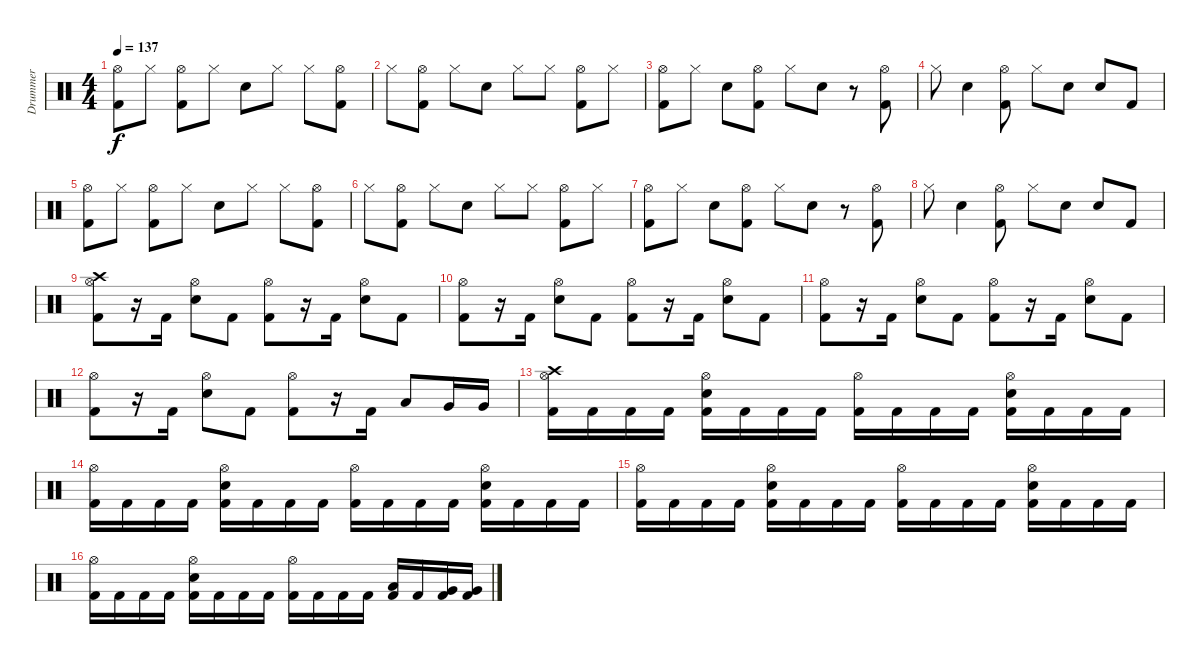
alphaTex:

\track ("Drummer" "Drummer") {instrument percussion}
\staff {score}
\articulation defaults
\ts (4 4)
\tempo 137
\clef neutral
\ks c
("Hi-Hat (open)" "Kick (hit) 2").8{dy f} "Hi-Hat (closed)".8 ("Hi-Hat (open)" "Kick (hit) 2").8 "Hi-Hat (closed)".8 "Electric Snare (hit)".8 "Hi-Hat (closed)".8 "Hi-Hat (closed)".8 ("Hi-Hat (open)" "Kick (hit) 2").8 |
"Hi-Hat (closed)".8 ("Hi-Hat (open)" "Kick (hit) 2").8 "Hi-Hat (closed)".8 "Electric Snare (hit)".8 "Hi-Hat (closed)".8 "Hi-Hat (closed)".8 ("Hi-Hat (open)" "Kick (hit) 2").8 "Hi-Hat (closed)".8 |
("Hi-Hat (open)" "Kick (hit) 2").8 "Hi-Hat (closed)".8 "Electric Snare (hit)".8 ("Hi-Hat (open)" "Kick (hit) 2").8 "Hi-Hat (closed)".8 "Electric Snare (hit)".8 r.8 ("Hi-Hat (open)" "Kick (hit) 2").8 |
"Hi-Hat (closed)".8 "Electric Snare (hit)".4 ("Hi-Hat (open)" "Kick (hit) 2").8 "Hi-Hat (closed)".8 "Electric Snare (hit)".8 "Electric Snare (hit)".8 "Kick (hit) 2".8 |
("Hi-Hat (open)" "Kick (hit) 2").8 "Hi-Hat (closed)".8 ("Hi-Hat (open)" "Kick (hit) 2").8 "Hi-Hat (closed)".8 "Electric Snare (hit)".8 "Hi-Hat (closed)".8 "Hi-Hat (closed)".8 ("Hi-Hat (open)" "Kick (hit) 2").8 |
"Hi-Hat (closed)".8 ("Hi-Hat (open)" "Kick (hit) 2").8 "Hi-Hat (closed)".8 "Electric Snare (hit)".8 "Hi-Hat (closed)".8 "Hi-Hat (closed)".8 ("Hi-Hat (open)" "Kick (hit) 2").8 "Hi-Hat (closed)".8 |
("Hi-Hat (open)" "Kick (hit) 2").8 "Hi-Hat (closed)".8 "Electric Snare (hit)".8 ("Hi-Hat (open)" "Kick (hit) 2").8 "Hi-Hat (closed)".8 "Electric Snare (hit)".8 r.8 ("Hi-Hat (open)" "Kick (hit) 2").8 |
"Hi-Hat (closed)".8 "Electric Snare (hit)".4 ("Hi-Hat (open)" "Kick (hit) 2").8 "Hi-Hat (closed)".8 "Electric Snare (hit)".8 "Electric Snare (hit)".8 "Kick (hit) 2".8 |
("Hi-Hat (open)" "Kick (hit) 2" "Crash high (hit)").8 r.16 "Kick (hit) 2".16 ("Hi-Hat (open)" "Electric Snare (hit)").8 "Kick (hit) 2".8 ("Hi-Hat (open)" "Kick (hit) 2").8 r.16 "Kick (hit) 2".16 ("Hi-Hat (open)" "Electric Snare (hit)").8 "Kick (hit) 2".8 |
("Hi-Hat (open)" "Kick (hit) 2").8 r.16 "Kick (hit) 2".16 ("Hi-Hat (open)" "Electric Snare (hit)").8 "Kick (hit) 2".8 ("Hi-Hat (open)" "Kick (hit) 2").8 r.16 "Kick (hit) 2".16 ("Hi-Hat (open)" "Electric Snare (hit)").8 "Kick (hit) 2".8 |
("Hi-Hat (open)" "Kick (hit) 2").8 r.16 "Kick (hit) 2".16 ("Hi-Hat (open)" "Electric Snare (hit)").8 "Kick (hit) 2".8 ("Hi-Hat (open)" "Kick (hit) 2").8 r.16 "Kick (hit) 2".16 ("Hi-Hat (open)" "Electric Snare (hit)").8 "Kick (hit) 2".8 |
("Hi-Hat (open)" "Kick (hit) 2").8 r.16 "Kick (hit) 2".16 ("Hi-Hat (open)" "Electric Snare (hit)").8 "Kick (hit) 2".8 ("Hi-Hat (open)" "Kick (hit) 2").8 r.16 "Kick (hit) 2".16 "Low Tom (hit)".8 "Very Low Tom (hit)".16 "Very Low Tom (hit)".16 |
("Crash high (hit)" "Hi-Hat (open)" "Kick (hit) 2").16 "Kick (hit) 2".16 "Kick (hit) 2".16 "Kick (hit) 2".16 ("Electric Snare (hit)" "Hi-Hat (open)" "Kick (hit) 2").16 "Kick (hit) 2".16 "Kick (hit) 2".16 "Kick (hit) 2".16 ("Hi-Hat (open)" "Kick (hit) 2").16 "Kick (hit) 2".16 "Kick (hit) 2".16 "Kick (hit) 2".16 ("Electric Snare (hit)" "Hi-Hat (open)" "Kick (hit) 2").16 "Kick (hit) 2".16 "Kick (hit) 2".16 "Kick (hit) 2".16 |
("Hi-Hat (open)" "Kick (hit) 2").16 "Kick (hit) 2".16 "Kick (hit) 2".16 "Kick (hit) 2".16 ("Electric Snare (hit)" "Hi-Hat (open)" "Kick (hit) 2").16 "Kick (hit) 2".16 "Kick (hit) 2".16 "Kick (hit) 2".16 ("Hi-Hat (open)" "Kick (hit) 2").16 "Kick (hit) 2".16 "Kick (hit) 2".16 "Kick (hit) 2".16 ("Electric Snare (hit)" "Hi-Hat (open)" "Kick (hit) 2").16 "Kick (hit) 2".16 "Kick (hit) 2".16 "Kick (hit) 2".16 |
("Hi-Hat (open)" "Kick (hit) 2").16 "Kick (hit) 2".16 "Kick (hit) 2".16 "Kick (hit) 2".16 ("Electric Snare (hit)" "Hi-Hat (open)" "Kick (hit) 2").16 "Kick (hit) 2".16 "Kick (hit) 2".16 "Kick (hit) 2".16 ("Hi-Hat (open)" "Kick (hit) 2").16 "Kick (hit) 2".16 "Kick (hit) 2".16 "Kick (hit) 2".16 ("Electric Snare (hit)" "Hi-Hat (open)" "Kick (hit) 2").16 "Kick (hit) 2".16 "Kick (hit) 2".16 "Kick (hit) 2".16 |
("Hi-Hat (open)" "Kick (hit) 2").16 "Kick (hit) 2".16 "Kick (hit) 2".16 "Kick (hit) 2".16 ("Electric Snare (hit)" "Hi-Hat (open)" "Kick (hit) 2").16 "Kick (hit) 2".16 "Kick (hit) 2".16 "Kick (hit) 2".16 ("Hi-Hat (open)" "Kick (hit) 2").16 "Kick (hit) 2".16 "Kick (hit) 2".16 "Kick (hit) 2".16 ("Low Tom (hit)" "Kick (hit) 2").16 "Kick (hit) 2".16 ("Very Low Tom (hit)" "Kick (hit) 2").16 ("Very Low Tom (hit)" "Kick (hit) 2").16
